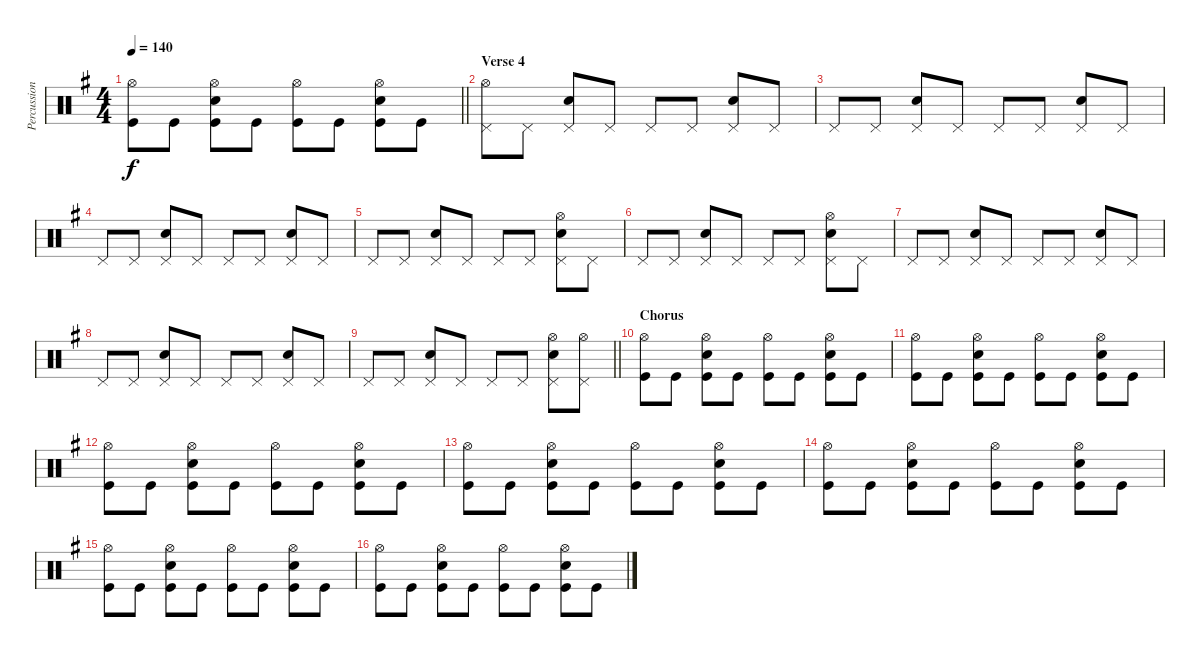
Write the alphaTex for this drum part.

\track ("Percussion" "Percussion") {instrument percussion}
\staff {score}
\articulation defaults
\ts (4 4)
\tempo 140
\clef neutral
\barLineRight lightlight
\ks g
("Hi-Hat (open)" "Kick (hit)").8{dy f} "Kick (hit)".8 ("Hi-Hat (open)" "Snare (hit) 2" "Kick (hit)").8 "Kick (hit)".8 ("Hi-Hat (open)" "Kick (hit)").8 "Kick (hit)".8 ("Hi-Hat (open)" "Snare (hit) 2" "Kick (hit)").8 "Kick (hit)".8 |
\section ("" "Verse 4")
("Pedal Hi-Hat (hit)" "Hi-Hat (open)").8 "Pedal Hi-Hat (hit)".8 ("Pedal Hi-Hat (hit)" "Snare (hit) 2").8 "Pedal Hi-Hat (hit)".8 "Pedal Hi-Hat (hit)".8 "Pedal Hi-Hat (hit)".8 ("Pedal Hi-Hat (hit)" "Snare (hit) 2").8 "Pedal Hi-Hat (hit)".8 |
"Pedal Hi-Hat (hit)".8 "Pedal Hi-Hat (hit)".8 ("Pedal Hi-Hat (hit)" "Snare (hit) 2").8 "Pedal Hi-Hat (hit)".8 "Pedal Hi-Hat (hit)".8 "Pedal Hi-Hat (hit)".8 ("Pedal Hi-Hat (hit)" "Snare (hit) 2").8 "Pedal Hi-Hat (hit)".8 |
"Pedal Hi-Hat (hit)".8 "Pedal Hi-Hat (hit)".8 ("Pedal Hi-Hat (hit)" "Snare (hit) 2").8 "Pedal Hi-Hat (hit)".8 "Pedal Hi-Hat (hit)".8 "Pedal Hi-Hat (hit)".8 ("Pedal Hi-Hat (hit)" "Snare (hit) 2").8 "Pedal Hi-Hat (hit)".8 |
"Pedal Hi-Hat (hit)".8 "Pedal Hi-Hat (hit)".8 ("Pedal Hi-Hat (hit)" "Snare (hit) 2").8 "Pedal Hi-Hat (hit)".8 "Pedal Hi-Hat (hit)".8 "Pedal Hi-Hat (hit)".8 ("Pedal Hi-Hat (hit)" "Hi-Hat (open)" "Snare (hit) 2").8 "Pedal Hi-Hat (hit)".8 |
"Pedal Hi-Hat (hit)".8 "Pedal Hi-Hat (hit)".8 ("Pedal Hi-Hat (hit)" "Snare (hit) 2").8 "Pedal Hi-Hat (hit)".8 "Pedal Hi-Hat (hit)".8 "Pedal Hi-Hat (hit)".8 ("Pedal Hi-Hat (hit)" "Hi-Hat (open)" "Snare (hit) 2").8 "Pedal Hi-Hat (hit)".8 |
"Pedal Hi-Hat (hit)".8 "Pedal Hi-Hat (hit)".8 ("Pedal Hi-Hat (hit)" "Snare (hit) 2").8 "Pedal Hi-Hat (hit)".8 "Pedal Hi-Hat (hit)".8 "Pedal Hi-Hat (hit)".8 ("Pedal Hi-Hat (hit)" "Snare (hit) 2").8 "Pedal Hi-Hat (hit)".8 |
"Pedal Hi-Hat (hit)".8 "Pedal Hi-Hat (hit)".8 ("Pedal Hi-Hat (hit)" "Snare (hit) 2").8 "Pedal Hi-Hat (hit)".8 "Pedal Hi-Hat (hit)".8 "Pedal Hi-Hat (hit)".8 ("Pedal Hi-Hat (hit)" "Snare (hit) 2").8 "Pedal Hi-Hat (hit)".8 |
\barLineRight lightlight "Pedal Hi-Hat (hit)".8 "Pedal Hi-Hat (hit)".8
("Pedal Hi-Hat (hit)" "Snare (hit) 2").8 "Pedal Hi-Hat (hit)".8 "Pedal Hi-Hat (hit)".8 "Pedal Hi-Hat (hit)".8 ("Pedal Hi-Hat (hit)" "Hi-Hat (open)" "Snare (hit) 2").8 ("Pedal Hi-Hat (hit)" "Hi-Hat (open)").8 |
\section ("" "Chorus")
("Hi-Hat (open)" "Kick (hit)").8 "Kick (hit)".8 ("Hi-Hat (open)" "Snare (hit) 2" "Kick (hit)").8 "Kick (hit)".8 ("Hi-Hat (open)" "Kick (hit)").8 "Kick (hit)".8 ("Hi-Hat (open)" "Snare (hit) 2" "Kick (hit)").8 "Kick (hit)".8 |
("Hi-Hat (open)" "Kick (hit)").8 "Kick (hit)".8 ("Hi-Hat (open)" "Snare (hit) 2" "Kick (hit)").8 "Kick (hit)".8 ("Hi-Hat (open)" "Kick (hit)").8 "Kick (hit)".8 ("Hi-Hat (open)" "Snare (hit) 2" "Kick (hit)").8 "Kick (hit)".8 |
("Hi-Hat (open)" "Kick (hit)").8 "Kick (hit)".8 ("Hi-Hat (open)" "Snare (hit) 2" "Kick (hit)").8 "Kick (hit)".8 ("Hi-Hat (open)" "Kick (hit)").8 "Kick (hit)".8 ("Hi-Hat (open)" "Snare (hit) 2" "Kick (hit)").8 "Kick (hit)".8 |
("Hi-Hat (open)" "Kick (hit)").8 "Kick (hit)".8 ("Hi-Hat (open)" "Snare (hit) 2" "Kick (hit)").8 "Kick (hit)".8 ("Hi-Hat (open)" "Kick (hit)").8 "Kick (hit)".8 ("Hi-Hat (open)" "Snare (hit) 2" "Kick (hit)").8 "Kick (hit)".8 |
("Hi-Hat (open)" "Kick (hit)").8 "Kick (hit)".8 ("Hi-Hat (open)" "Snare (hit) 2" "Kick (hit)").8 "Kick (hit)".8 ("Hi-Hat (open)" "Kick (hit)").8 "Kick (hit)".8 ("Hi-Hat (open)" "Snare (hit) 2" "Kick (hit)").8 "Kick (hit)".8 |
("Hi-Hat (open)" "Kick (hit)").8 "Kick (hit)".8 ("Hi-Hat (open)" "Snare (hit) 2" "Kick (hit)").8 "Kick (hit)".8 ("Hi-Hat (open)" "Kick (hit)").8 "Kick (hit)".8 ("Hi-Hat (open)" "Snare (hit) 2" "Kick (hit)").8 "Kick (hit)".8 |
("Hi-Hat (open)" "Kick (hit)").8 "Kick (hit)".8 ("Hi-Hat (open)" "Snare (hit) 2" "Kick (hit)").8 "Kick (hit)".8 ("Hi-Hat (open)" "Kick (hit)").8 "Kick (hit)".8 ("Hi-Hat (open)" "Snare (hit) 2" "Kick (hit)").8 "Kick (hit)".8
